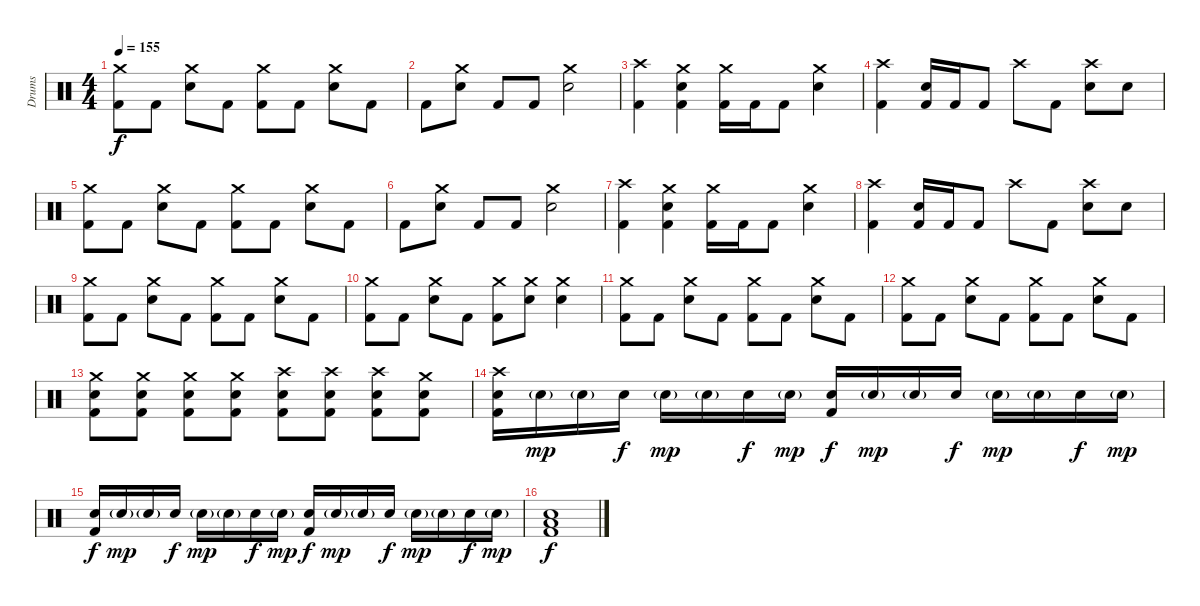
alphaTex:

\track ("Drums" "Drums") {instrument percussion}
\staff {score}
\articulation defaults
\ts (4 4)
\tempo 155
\clef neutral
\ks c
("Crash medium (hit)" "Kick (hit) 2").8{dy f} "Kick (hit) 2".8 ("Crash medium (hit)" "Snare (hit) 2").8 "Kick (hit) 2".8 ("Crash medium (hit)" "Kick (hit) 2").8 "Kick (hit) 2".8 ("Crash medium (hit)" "Snare (hit) 2").8 "Kick (hit) 2".8 |
"Kick (hit) 2".8 ("Crash medium (hit)" "Snare (hit) 2").8 "Kick (hit) 2".8 "Kick (hit) 2".8 ("Crash medium (hit)" "Snare (hit) 2").2 |
("Crash high (hit)" "Kick (hit) 2").4 ("Crash medium (hit)" "Snare (hit) 2" "Kick (hit) 2").4 ("Crash medium (hit)" "Kick (hit) 2").16 "Kick (hit) 2".16 "Kick (hit) 2".8 ("Crash medium (hit)" "Snare (hit) 2").4 |
("Crash high (hit)" "Kick (hit) 2").4 ("Snare (hit) 2" "Kick (hit) 2").16 "Kick (hit) 2".16 "Kick (hit) 2".8 "Crash high (hit)".8 "Kick (hit) 2".8 ("Crash high (hit)" "Snare (hit) 2").8 "Snare (hit) 2".8 |
("Crash medium (hit)" "Kick (hit) 2").8 "Kick (hit) 2".8 ("Crash medium (hit)" "Snare (hit) 2").8 "Kick (hit) 2".8 ("Crash medium (hit)" "Kick (hit) 2").8 "Kick (hit) 2".8 ("Crash medium (hit)" "Snare (hit) 2").8 "Kick (hit) 2".8 |
"Kick (hit) 2".8 ("Crash medium (hit)" "Snare (hit) 2").8 "Kick (hit) 2".8 "Kick (hit) 2".8 ("Crash medium (hit)" "Snare (hit) 2").2 |
("Crash high (hit)" "Kick (hit) 2").4 ("Crash medium (hit)" "Snare (hit) 2" "Kick (hit) 2").4 ("Crash medium (hit)" "Kick (hit) 2").16 "Kick (hit) 2".16 "Kick (hit) 2".8 ("Crash medium (hit)" "Snare (hit) 2").4 |
("Crash high (hit)" "Kick (hit) 2").4 ("Snare (hit) 2" "Kick (hit) 2").16 "Kick (hit) 2".16 "Kick (hit) 2".8 "Crash high (hit)".8 "Kick (hit) 2".8 ("Crash high (hit)" "Snare (hit) 2").8 "Snare (hit) 2".8 |
("Crash medium (hit)" "Kick (hit) 2").8 "Kick (hit) 2".8 ("Crash medium (hit)" "Snare (hit) 2").8 "Kick (hit) 2".8 ("Crash medium (hit)" "Kick (hit) 2").8 "Kick (hit) 2".8 ("Crash medium (hit)" "Snare (hit) 2").8 "Kick (hit) 2".8 |
("Crash medium (hit)" "Kick (hit) 2").8 "Kick (hit) 2".8 ("Crash medium (hit)" "Snare (hit) 2").8 "Kick (hit) 2".8 ("Crash medium (hit)" "Kick (hit) 2").8 ("Crash medium (hit)" "Snare (hit) 2").8 ("Crash medium (hit)" "Snare (hit) 2").4 |
("Crash medium (hit)" "Kick (hit) 2").8 "Kick (hit) 2".8 ("Crash medium (hit)" "Snare (hit) 2").8 "Kick (hit) 2".8 ("Crash medium (hit)" "Kick (hit) 2").8 "Kick (hit) 2".8 ("Crash medium (hit)" "Snare (hit) 2").8 "Kick (hit) 2".8 |
("Crash medium (hit)" "Kick (hit) 2").8 "Kick (hit) 2".8 ("Crash medium (hit)" "Snare (hit) 2").8 "Kick (hit) 2".8 ("Crash medium (hit)" "Kick (hit) 2").8 "Kick (hit) 2".8 ("Crash medium (hit)" "Snare (hit) 2").8 "Kick (hit) 2".8 |
("Crash medium (hit)" "Snare (hit) 2" "Kick (hit) 2").8 ("Crash medium (hit)" "Snare (hit) 2" "Kick (hit) 2").8 ("Crash medium (hit)" "Snare (hit) 2" "Kick (hit) 2").8 ("Crash medium (hit)" "Snare (hit) 2" "Kick (hit) 2").8 ("Crash high (hit)" "Snare (hit) 2" "Kick (hit) 2").8 ("Crash high (hit)" "Snare (hit) 2" "Kick (hit) 2").8 ("Crash high (hit)" "Snare (hit) 2" "Kick (hit) 2").8 ("Crash medium (hit)" "Snare (hit) 2" "Kick (hit) 2").8 |
("Crash high (hit)" "Snare (hit) 2" "Kick (hit) 2").16 "Snare (hit) 2"{g}.16{dy mp} "Snare (hit) 2"{g}.16 "Snare (hit) 2".16{dy f} "Snare (hit) 2"{g}.16{dy mp} "Snare (hit) 2"{g}.16 "Snare (hit) 2".16{dy f} "Snare (hit) 2"{g}.16{dy mp} ("Snare (hit) 2" "Kick (hit) 2").16{dy f} "Snare (hit) 2"{g}.16{dy mp} "Snare (hit) 2"{g}.16 "Snare (hit) 2".16{dy f} "Snare (hit) 2"{g}.16{dy mp} "Snare (hit) 2"{g}.16 "Snare (hit) 2".16{dy f} "Snare (hit) 2"{g}.16{dy mp} |
("Snare (hit) 2" "Kick (hit) 2").16{dy f} "Snare (hit) 2"{g}.16{dy mp} "Snare (hit) 2"{g}.16 "Snare (hit) 2".16{dy f} "Snare (hit) 2"{g}.16{dy mp} "Snare (hit) 2"{g}.16 "Snare (hit) 2".16{dy f} "Snare (hit) 2"{g}.16{dy mp} ("Snare (hit) 2" "Kick (hit) 2").16{dy f} "Snare (hit) 2"{g}.16{dy mp} "Snare (hit) 2"{g}.16 "Snare (hit) 2".16{dy f} "Snare (hit) 2"{g}.16{dy mp} "Snare (hit) 2"{g}.16 "Snare (hit) 2".16{dy f} "Snare (hit) 2"{g}.16{dy mp} |
("Snare (hit) 2" "Low Floor Tom (hit)" "Kick (hit) 2").1{dy f}
